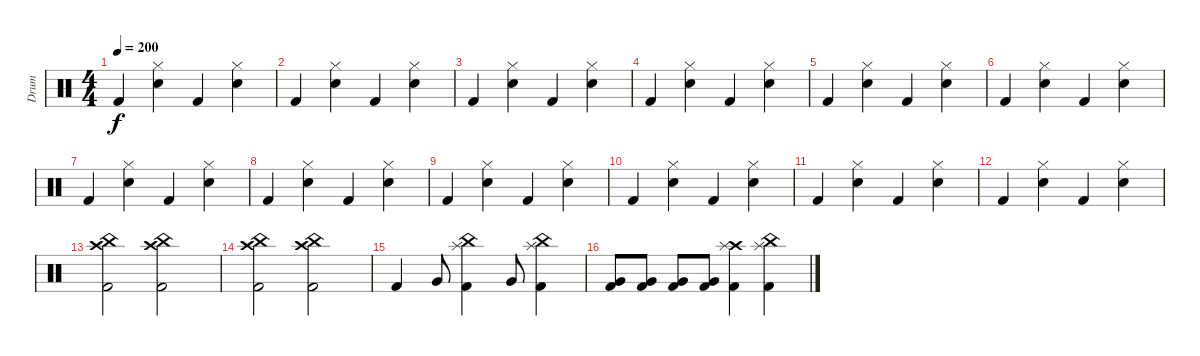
\track ("Drum" "Drum") {instrument percussion}
\staff {score}
\articulation defaults
\ts (4 4)
\tempo 200
\clef neutral
\ks c "Kick (hit) 2".4{dy f}
("Hi-Hat (closed)" "Electric Snare (hit)").4 "Kick (hit) 2".4 ("Hi-Hat (closed)" "Electric Snare (hit)").4 |
"Kick (hit) 2".4 ("Hi-Hat (closed)" "Electric Snare (hit)").4 "Kick (hit) 2".4 ("Hi-Hat (closed)" "Electric Snare (hit)").4 |
"Kick (hit) 2".4 ("Hi-Hat (closed)" "Electric Snare (hit)").4 "Kick (hit) 2".4 ("Hi-Hat (closed)" "Electric Snare (hit)").4 |
"Kick (hit) 2".4 ("Hi-Hat (closed)" "Electric Snare (hit)").4 "Kick (hit) 2".4 ("Hi-Hat (closed)" "Electric Snare (hit)").4 |
"Kick (hit) 2".4 ("Hi-Hat (closed)" "Electric Snare (hit)").4 "Kick (hit) 2".4 ("Hi-Hat (closed)" "Electric Snare (hit)").4 |
"Kick (hit) 2".4 ("Hi-Hat (closed)" "Electric Snare (hit)").4 "Kick (hit) 2".4 ("Hi-Hat (closed)" "Electric Snare (hit)").4 |
"Kick (hit) 2".4 ("Hi-Hat (closed)" "Electric Snare (hit)").4 "Kick (hit) 2".4 ("Hi-Hat (closed)" "Electric Snare (hit)").4 |
"Kick (hit) 2".4 ("Hi-Hat (closed)" "Electric Snare (hit)").4 "Kick (hit) 2".4 ("Hi-Hat (closed)" "Electric Snare (hit)").4 |
"Kick (hit) 2".4 ("Hi-Hat (closed)" "Electric Snare (hit)").4 "Kick (hit) 2".4 ("Hi-Hat (closed)" "Electric Snare (hit)").4 |
"Kick (hit) 2".4 ("Hi-Hat (closed)" "Electric Snare (hit)").4 "Kick (hit) 2".4 ("Hi-Hat (closed)" "Electric Snare (hit)").4 |
"Kick (hit) 2".4 ("Hi-Hat (closed)" "Electric Snare (hit)").4 "Kick (hit) 2".4 ("Hi-Hat (closed)" "Electric Snare (hit)").4 |
"Kick (hit) 2".4 ("Hi-Hat (closed)" "Electric Snare (hit)").4 "Kick (hit) 2".4 ("Hi-Hat (closed)" "Electric Snare (hit)").4 |
("China (hit)" "Crash high (hit)" "Kick (hit) 2").2 ("China (hit)" "Crash high (hit)" "Kick (hit) 2").2 |
("China (hit)" "Crash high (hit)" "Kick (hit) 2").2 ("China (hit)" "Crash high (hit)" "Kick (hit) 2").2 |
"Kick (hit) 2".4 "Very Low Tom (hit)".8 ("China (hit)" "Splash (hit)" "Kick (hit) 2").4 "Very Low Tom (hit)".8 ("China (hit)" "Splash (hit)" "Kick (hit) 2").4 |
("Very Low Tom (hit)" "Kick (hit) 2").8 ("Very Low Tom (hit)" "Kick (hit) 2").8 ("Very Low Tom (hit)" "Kick (hit) 2").8 ("Very Low Tom (hit)" "Kick (hit) 2").8 ("Crash high (hit)" "Splash (hit)" "Kick (hit) 2").4 ("China (hit)" "Splash (hit)" "Kick (hit) 2").4
